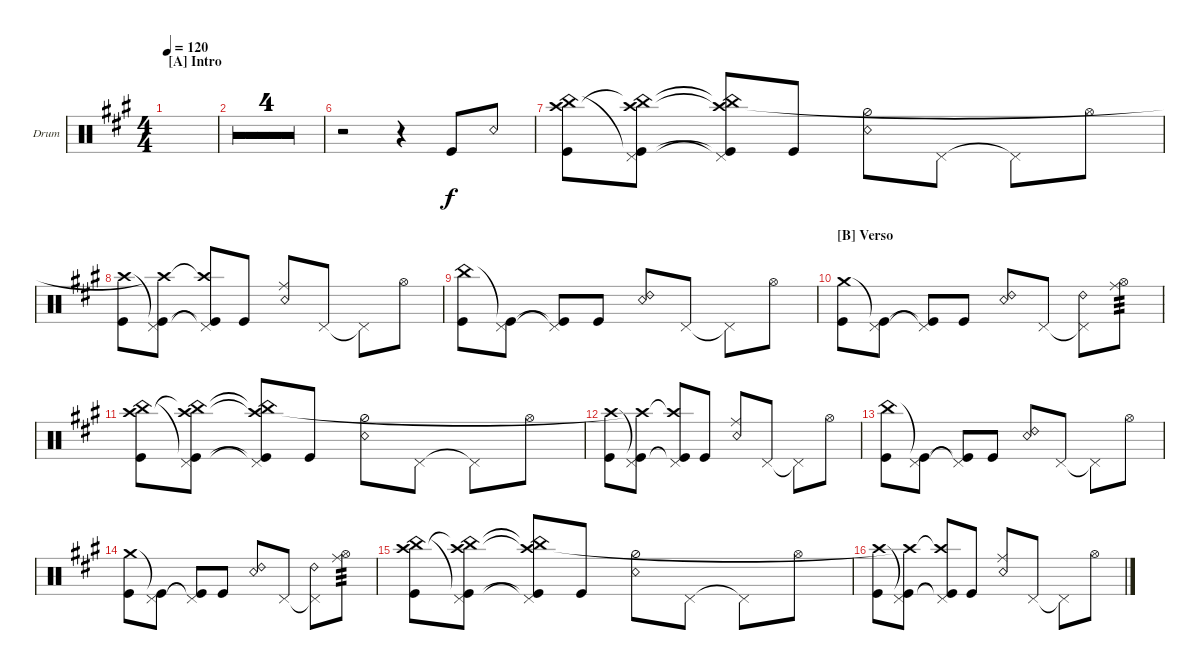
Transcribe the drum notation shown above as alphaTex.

\defaultSystemsLayout 4
\bracketExtendMode groupsimilarinstruments
\firstSystemTrackNameOrientation horizontal
\otherSystemsTrackNameOrientation horizontal
\track ("Drum" "Drum") {multiBarRest instrument percussion}
\staff {score}
\articulation defaults
\ts (4 4)
\section ("A" "Intro")
\tempo 120
\clef neutral
\ks a
|
|
|
|
|
r.2 r.4 "Kick (hit)".8 "Snare (rim shot)".8 |
("Kick (hit)" "China (hit)" "Crash high (hit)").8 ("Pedal Hi-Hat (hit)" "Kick (hit)"{t} "China (hit)"{t} "Crash high (hit)").8 ("Kick (hit)"{t} "Pedal Hi-Hat (hit)"{t} "China (hit)"{t} "Crash high (hit)"{t}).8 "Kick (hit)".8 ("Snare (rim shot)" "Hi-Hat (half)").8 "Pedal Hi-Hat (hit)".8 "Pedal Hi-Hat (hit)"{t}.8 "Hi-Hat (open)".8 |
("Kick (hit)" "Crash high (hit)").8 ("Pedal Hi-Hat (hit)" "Kick (hit)"{t} "Crash high (hit)"{t}).8 ("Kick (hit)"{t} "Pedal Hi-Hat (hit)"{t} "Crash high (hit)"{t}).8 "Kick (hit)".8 ("Snare (rim shot)" "Ride (middle)").8 "Pedal Hi-Hat (hit)".8 "Pedal Hi-Hat (hit)"{t}.8 "Hi-Hat (open)".8 |
("Kick (hit)" "China (hit)").8 ("Pedal Hi-Hat (hit)" "Kick (hit)"{t}).8 ("Kick (hit)"{t} "Pedal Hi-Hat (hit)"{t}).8 "Kick (hit)".8 ("Snare (rim shot)" "Ride (bell) 2").8 "Pedal Hi-Hat (hit)".8 "Pedal Hi-Hat (hit)"{t}.8 "Hi-Hat (open)".8 |
\section ("B" "Verso")
("Kick (hit)" "Crash medium (hit)").8 ("Pedal Hi-Hat (hit)" "Kick (hit)"{t}).8 ("Kick (hit)"{t} "Pedal Hi-Hat (hit)"{t}).8 "Kick (hit)".8 ("Snare (rim shot)" "Ride (bell) 2").8 "Pedal Hi-Hat (hit)".8 ("Pedal Hi-Hat (hit)"{t} "Ride (bell) 2").8 ("Hi-Hat (open)" "Ride (middle)").8{tp 3} |
("Kick (hit)" "China (hit)" "Crash high (hit)").8 ("Pedal Hi-Hat (hit)" "Kick (hit)"{t} "China (hit)"{t} "Crash high (hit)").8 ("Kick (hit)"{t} "Pedal Hi-Hat (hit)"{t} "China (hit)"{t} "Crash high (hit)"{t}).8 "Kick (hit)".8 ("Snare (rim shot)" "Hi-Hat (half)").8 "Pedal Hi-Hat (hit)".8 "Pedal Hi-Hat (hit)"{t}.8 "Hi-Hat (open)".8 |
("Kick (hit)" "Crash high (hit)").8 ("Pedal Hi-Hat (hit)" "Kick (hit)"{t} "Crash high (hit)"{t}).8 ("Kick (hit)"{t} "Pedal Hi-Hat (hit)"{t} "Crash high (hit)"{t}).8 "Kick (hit)".8 ("Snare (rim shot)" "Ride (middle)").8 "Pedal Hi-Hat (hit)".8 "Pedal Hi-Hat (hit)"{t}.8 "Hi-Hat (open)".8 |
("Kick (hit)" "China (hit)").8 ("Pedal Hi-Hat (hit)" "Kick (hit)"{t}).8 ("Kick (hit)"{t} "Pedal Hi-Hat (hit)"{t}).8 "Kick (hit)".8 ("Snare (rim shot)" "Ride (bell) 2").8 "Pedal Hi-Hat (hit)".8 "Pedal Hi-Hat (hit)"{t}.8 "Hi-Hat (open)".8 |
("Kick (hit)" "Crash medium (hit)").8 ("Pedal Hi-Hat (hit)" "Kick (hit)"{t}).8 ("Kick (hit)"{t} "Pedal Hi-Hat (hit)"{t}).8 "Kick (hit)".8 ("Snare (rim shot)" "Ride (bell) 2").8 "Pedal Hi-Hat (hit)".8 ("Pedal Hi-Hat (hit)"{t} "Ride (bell) 2").8 ("Hi-Hat (open)" "Ride (middle)").8{tp 3} |
("Kick (hit)" "China (hit)" "Crash high (hit)").8 ("Pedal Hi-Hat (hit)" "Kick (hit)"{t} "China (hit)"{t} "Crash high (hit)").8 ("Kick (hit)"{t} "Pedal Hi-Hat (hit)"{t} "China (hit)"{t} "Crash high (hit)"{t}).8 "Kick (hit)".8 ("Snare (rim shot)" "Hi-Hat (half)").8 "Pedal Hi-Hat (hit)".8 "Pedal Hi-Hat (hit)"{t}.8 "Hi-Hat (open)".8 |
("Kick (hit)" "Crash high (hit)").8 ("Pedal Hi-Hat (hit)" "Kick (hit)"{t} "Crash high (hit)"{t}).8 ("Kick (hit)"{t} "Pedal Hi-Hat (hit)"{t} "Crash high (hit)"{t}).8 "Kick (hit)".8 ("Snare (rim shot)" "Ride (middle)").8 "Pedal Hi-Hat (hit)".8 "Pedal Hi-Hat (hit)"{t}.8 "Hi-Hat (open)".8
